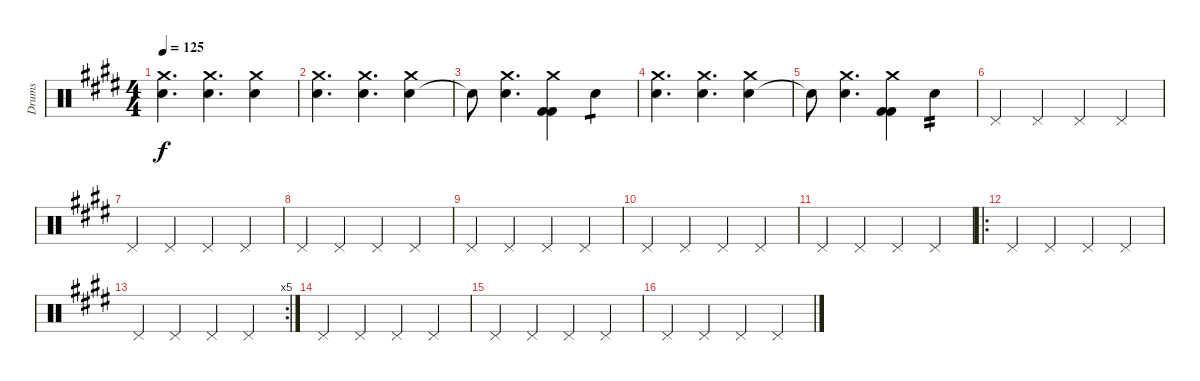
\track ("Drums" "Drums") {instrument percussion}
\staff {score}
\articulation defaults
\ts (4 4)
\tempo 125
\clef neutral
\ks e
("Snare (hit) 2" "Crash medium (hit)").4{d dy f} ("Snare (hit) 2" "Crash medium (hit)").4{d} ("Snare (hit) 2" "Crash medium (hit)").4 |
("Snare (hit) 2" "Crash medium (hit)").4{d} ("Snare (hit) 2" "Crash medium (hit)").4{d} ("Snare (hit) 2" "Crash medium (hit)").4 |
"Snare (hit)"{t}.8 ("Snare (hit) 2" "Crash medium (hit)").4{d} ("Kick (hit) 2" "Kick (hit) 2" "Crash medium (hit)").4 "Snare (hit) 2".4{tp 1} |
("Snare (hit) 2" "Crash medium (hit)").4{d} ("Snare (hit) 2" "Crash medium (hit)").4{d} ("Snare (hit) 2" "Crash medium (hit)").4 |
"Snare (hit)"{t}.8 ("Snare (hit) 2" "Crash medium (hit)").4{d} ("Kick (hit) 2" "Kick (hit) 2" "Crash medium (hit)").4 "Snare (hit) 2".4{tp 2} |
"Pedal Hi-Hat (hit)".4 "Pedal Hi-Hat (hit)".4 "Pedal Hi-Hat (hit)".4 "Pedal Hi-Hat (hit)".4 |
"Pedal Hi-Hat (hit)".4 "Pedal Hi-Hat (hit)".4 "Pedal Hi-Hat (hit)".4 "Pedal Hi-Hat (hit)".4 |
"Pedal Hi-Hat (hit)".4 "Pedal Hi-Hat (hit)".4 "Pedal Hi-Hat (hit)".4 "Pedal Hi-Hat (hit)".4 |
"Pedal Hi-Hat (hit)".4 "Pedal Hi-Hat (hit)".4 "Pedal Hi-Hat (hit)".4 "Pedal Hi-Hat (hit)".4 |
"Pedal Hi-Hat (hit)".4 "Pedal Hi-Hat (hit)".4 "Pedal Hi-Hat (hit)".4 "Pedal Hi-Hat (hit)".4 |
"Pedal Hi-Hat (hit)".4 "Pedal Hi-Hat (hit)".4 "Pedal Hi-Hat (hit)".4 "Pedal Hi-Hat (hit)".4 |
\ro "Pedal Hi-Hat (hit)".4 "Pedal Hi-Hat (hit)".4 "Pedal Hi-Hat (hit)".4 "Pedal Hi-Hat (hit)".4
|
\rc 5 "Pedal Hi-Hat (hit)".4 "Pedal Hi-Hat (hit)".4 "Pedal Hi-Hat (hit)".4 "Pedal Hi-Hat (hit)".4
|
"Pedal Hi-Hat (hit)".4 "Pedal Hi-Hat (hit)".4 "Pedal Hi-Hat (hit)".4 "Pedal Hi-Hat (hit)".4 |
"Pedal Hi-Hat (hit)".4 "Pedal Hi-Hat (hit)".4 "Pedal Hi-Hat (hit)".4 "Pedal Hi-Hat (hit)".4 |
"Pedal Hi-Hat (hit)".4 "Pedal Hi-Hat (hit)".4 "Pedal Hi-Hat (hit)".4 "Pedal Hi-Hat (hit)".4
